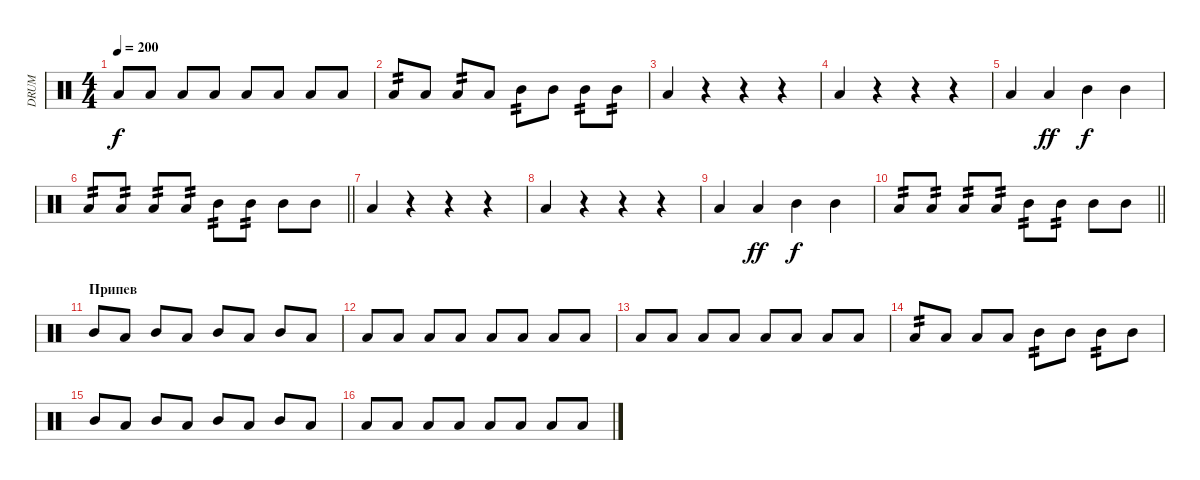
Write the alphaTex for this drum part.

\track ("DRUM" "DRUM") {instrument percussion}
\staff {score}
\articulation defaults
\ts (4 4)
\tempo 200
\clef neutral
\ks c "Low Tom (hit)".8{dy f} "Low Tom (hit)".8 "Low Tom (hit)".8 "Low Tom (hit)".8 "Low Tom (hit)".8 "Low Tom (hit)".8 "Low Tom (hit)".8 "Low Tom (hit)".8
|
"Low Tom (hit)".8{tp 2} "Low Tom (hit)".8 "Low Tom (hit)".8{tp 2} "Low Tom (hit)".8 "Mid Tom (hit)".8{tp 2} "Mid Tom (hit)".8 "Mid Tom (hit)".8{tp 2} "Mid Tom (hit)".8{tp 2} |
"Low Tom (hit)".4 r.4 r.4 r.4 |
"Low Tom (hit)".4 r.4 r.4 r.4 |
"Low Tom (hit)".4 "Low Floor Tom (hit)".4{dy ff} "Mid Tom (hit)".4{dy f} "Mid Tom (hit)".4 |
\barLineRight lightlight "Low Tom (hit)".8{tp 2} "Low Tom (hit)".8{tp 2} "Low Tom (hit)".8{tp 2} "Low Tom (hit)".8{tp 2} "Mid Tom (hit)".8{tp 2} "Mid Tom (hit)".8{tp 2} "Mid Tom (hit)".8 "Mid Tom (hit)".8
|
"Low Tom (hit)".4 r.4 r.4 r.4 |
"Low Tom (hit)".4 r.4 r.4 r.4 |
"Low Tom (hit)".4 "Low Floor Tom (hit)".4{dy ff} "Mid Tom (hit)".4{dy f} "Mid Tom (hit)".4 |
\barLineRight lightlight "Low Tom (hit)".8{tp 2} "Low Tom (hit)".8{tp 2} "Low Tom (hit)".8{tp 2} "Low Tom (hit)".8{tp 2} "Mid Tom (hit)".8{tp 2} "Mid Tom (hit)".8{tp 2} "Mid Tom (hit)".8 "Mid Tom (hit)".8
|
\section ("" "Припев")
"Mid Tom (hit)".8 "Low Tom (hit)".8 "Mid Tom (hit)".8 "Low Tom (hit)".8 "Mid Tom (hit)".8 "Low Tom (hit)".8 "Mid Tom (hit)".8 "Low Tom (hit)".8 |
"Low Tom (hit)".8 "Low Floor Tom (hit)".8 "Low Tom (hit)".8 "Low Floor Tom (hit)".8 "Low Tom (hit)".8 "Low Floor Tom (hit)".8 "Low Tom (hit)".8 "Low Floor Tom (hit)".8 |
"Low Tom (hit)".8 "Low Tom (hit)".8 "Low Tom (hit)".8 "Low Tom (hit)".8 "Low Tom (hit)".8 "Low Tom (hit)".8 "Low Tom (hit)".8 "Low Tom (hit)".8 |
"Low Tom (hit)".8{tp 2} "Low Tom (hit)".8 "Low Tom (hit)".8 "Low Tom (hit)".8 "Mid Tom (hit)".8{tp 2} "Mid Tom (hit)".8 "Mid Tom (hit)".8{tp 2} "Mid Tom (hit)".8 |
"Mid Tom (hit)".8 "Low Tom (hit)".8 "Mid Tom (hit)".8 "Low Tom (hit)".8 "Mid Tom (hit)".8 "Low Tom (hit)".8 "Mid Tom (hit)".8 "Low Tom (hit)".8 |
"Low Tom (hit)".8 "Low Floor Tom (hit)".8 "Low Tom (hit)".8 "Low Floor Tom (hit)".8 "Low Tom (hit)".8 "Low Floor Tom (hit)".8 "Low Tom (hit)".8 "Low Floor Tom (hit)".8
